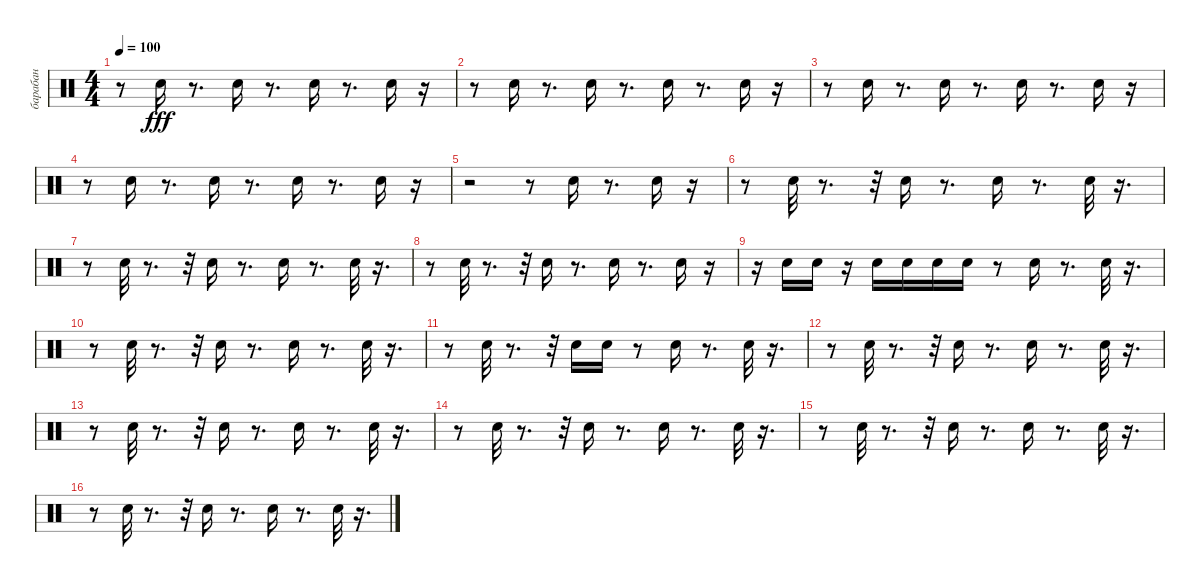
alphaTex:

\track ("барабан" "барабан") {instrument percussion}
\staff {score}
\articulation defaults
\ts (4 4)
\tempo 100
\clef neutral
\ks c
r.8{dy fff} "Snare (hit) 2".16 r.8{d} "Snare (hit) 2".16 r.8{d} "Snare (hit) 2".16 r.8{d} "Snare (hit) 2".16 r.16 |
r.8 "Snare (hit) 2".16 r.8{d} "Snare (hit) 2".16 r.8{d} "Snare (hit) 2".16 r.8{d} "Snare (hit) 2".16 r.16 |
r.8 "Snare (hit) 2".16 r.8{d} "Snare (hit) 2".16 r.8{d} "Snare (hit) 2".16 r.8{d} "Snare (hit) 2".16 r.16 |
r.8 "Snare (hit) 2".16 r.8{d} "Snare (hit) 2".16 r.8{d} "Snare (hit) 2".16 r.8{d} "Snare (hit) 2".16 r.16 |
r.2 r.8 "Snare (hit) 2".16 r.8{d} "Snare (hit) 2".16 r.16 |
r.8 "Snare (hit) 2".32 r.8{d} r.32 "Snare (hit) 2".16 r.8{d} "Snare (hit) 2".16 r.8{d} "Snare (hit) 2".32 r.16{d} |
r.8 "Snare (hit) 2".32 r.8{d} r.32 "Snare (hit) 2".16 r.8{d} "Snare (hit) 2".16 r.8{d} "Snare (hit) 2".32 r.16{d} |
r.8 "Snare (hit) 2".32 r.8{d} r.32 "Snare (hit) 2".16 r.8{d} "Snare (hit) 2".16 r.8{d} "Snare (hit) 2".16 r.16 |
r.16 "Snare (hit) 2".16 "Snare (hit) 2".16 r.16 "Snare (hit) 2".16 "Snare (hit) 2".16 "Snare (hit) 2".16 "Snare (hit) 2".16 r.8 "Snare (hit) 2".16 r.8{d} "Snare (hit) 2".32 r.16{d} |
r.8 "Snare (hit) 2".32 r.8{d} r.32 "Snare (hit) 2".16 r.8{d} "Snare (hit) 2".16 r.8{d} "Snare (hit) 2".32 r.16{d} |
r.8 "Snare (hit) 2".32 r.8{d} r.32 "Snare (hit) 2".16 "Snare (hit) 2".16 r.8 "Snare (hit) 2".16 r.8{d} "Snare (hit) 2".32 r.16{d} |
r.8 "Snare (hit) 2".32 r.8{d} r.32 "Snare (hit) 2".16 r.8{d} "Snare (hit) 2".16 r.8{d} "Snare (hit) 2".32 r.16{d} |
r.8 "Snare (hit) 2".32 r.8{d} r.32 "Snare (hit) 2".16 r.8{d} "Snare (hit) 2".16 r.8{d} "Snare (hit) 2".32 r.16{d} |
r.8 "Snare (hit) 2".32 r.8{d} r.32 "Snare (hit) 2".16 r.8{d} "Snare (hit) 2".16 r.8{d} "Snare (hit) 2".32 r.16{d} |
r.8 "Snare (hit) 2".32 r.8{d} r.32 "Snare (hit) 2".16 r.8{d} "Snare (hit) 2".16 r.8{d} "Snare (hit) 2".32 r.16{d} |
r.8 "Snare (hit) 2".32 r.8{d} r.32 "Snare (hit) 2".16 r.8{d} "Snare (hit) 2".16 r.8{d} "Snare (hit) 2".32 r.16{d}
